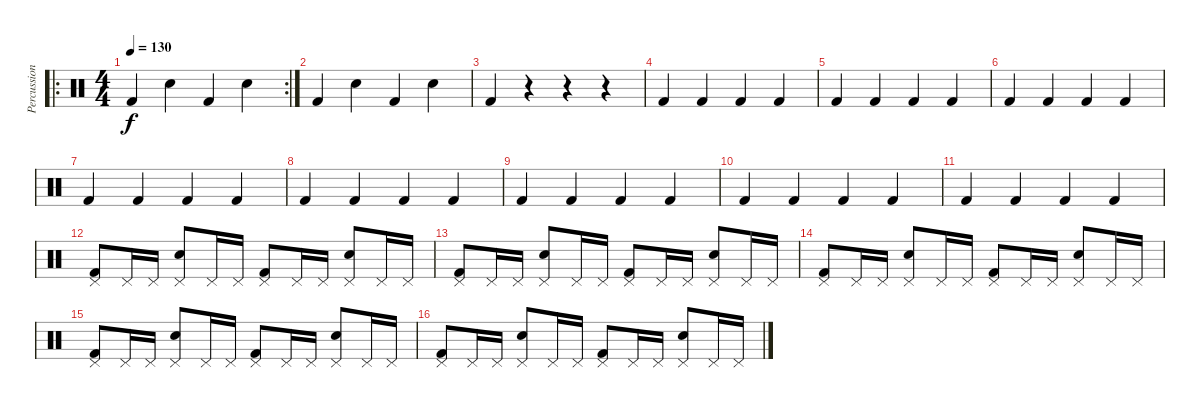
\track ("Percussion" "Percussion") {instrument percussion}
\staff {score}
\articulation defaults
\ro
\rc 2
\ts (4 4)
\tempo 130
\clef neutral
\ks c "Kick (hit) 2".4{dy f} "Snare (hit) 2".4 "Kick (hit) 2".4 "Snare (hit) 2".4
|
"Kick (hit) 2".4 "Snare (hit) 2".4 "Kick (hit) 2".4 "Snare (hit) 2".4 |
"Kick (hit) 2".4 r.4 r.4 r.4 |
"Kick (hit) 2".4 "Kick (hit) 2".4 "Kick (hit) 2".4 "Kick (hit) 2".4 |
"Kick (hit) 2".4 "Kick (hit) 2".4 "Kick (hit) 2".4 "Kick (hit) 2".4 |
"Kick (hit) 2".4 "Kick (hit) 2".4 "Kick (hit) 2".4 "Kick (hit) 2".4 |
"Kick (hit) 2".4 "Kick (hit) 2".4 "Kick (hit) 2".4 "Kick (hit) 2".4 |
"Kick (hit) 2".4 "Kick (hit) 2".4 "Kick (hit) 2".4 "Kick (hit) 2".4 |
"Kick (hit) 2".4 "Kick (hit) 2".4 "Kick (hit) 2".4 "Kick (hit) 2".4 |
"Kick (hit) 2".4 "Kick (hit) 2".4 "Kick (hit) 2".4 "Kick (hit) 2".4 |
"Kick (hit) 2".4 "Kick (hit) 2".4 "Kick (hit) 2".4 "Kick (hit) 2".4 |
("Pedal Hi-Hat (hit)" "Kick (hit) 2").8 "Pedal Hi-Hat (hit)".16 "Pedal Hi-Hat (hit)".16 ("Pedal Hi-Hat (hit)" "Snare (hit) 2").8 "Pedal Hi-Hat (hit)".16 "Pedal Hi-Hat (hit)".16 ("Pedal Hi-Hat (hit)" "Kick (hit) 2").8 "Pedal Hi-Hat (hit)".16 "Pedal Hi-Hat (hit)".16 ("Pedal Hi-Hat (hit)" "Snare (hit) 2").8 "Pedal Hi-Hat (hit)".16 "Pedal Hi-Hat (hit)".16 |
("Pedal Hi-Hat (hit)" "Kick (hit) 2").8 "Pedal Hi-Hat (hit)".16 "Pedal Hi-Hat (hit)".16 ("Pedal Hi-Hat (hit)" "Snare (hit) 2").8 "Pedal Hi-Hat (hit)".16 "Pedal Hi-Hat (hit)".16 ("Pedal Hi-Hat (hit)" "Kick (hit) 2").8 "Pedal Hi-Hat (hit)".16 "Pedal Hi-Hat (hit)".16 ("Pedal Hi-Hat (hit)" "Snare (hit) 2").8 "Pedal Hi-Hat (hit)".16 "Pedal Hi-Hat (hit)".16 |
("Pedal Hi-Hat (hit)" "Kick (hit) 2").8 "Pedal Hi-Hat (hit)".16 "Pedal Hi-Hat (hit)".16 ("Pedal Hi-Hat (hit)" "Snare (hit) 2").8 "Pedal Hi-Hat (hit)".16 "Pedal Hi-Hat (hit)".16 ("Pedal Hi-Hat (hit)" "Kick (hit) 2").8 "Pedal Hi-Hat (hit)".16 "Pedal Hi-Hat (hit)".16 ("Pedal Hi-Hat (hit)" "Snare (hit) 2").8 "Pedal Hi-Hat (hit)".16 "Pedal Hi-Hat (hit)".16 |
("Pedal Hi-Hat (hit)" "Kick (hit) 2").8 "Pedal Hi-Hat (hit)".16 "Pedal Hi-Hat (hit)".16 ("Pedal Hi-Hat (hit)" "Snare (hit) 2").8 "Pedal Hi-Hat (hit)".16 "Pedal Hi-Hat (hit)".16 ("Pedal Hi-Hat (hit)" "Kick (hit) 2").8 "Pedal Hi-Hat (hit)".16 "Pedal Hi-Hat (hit)".16 ("Pedal Hi-Hat (hit)" "Snare (hit) 2").8 "Pedal Hi-Hat (hit)".16 "Pedal Hi-Hat (hit)".16 |
("Pedal Hi-Hat (hit)" "Kick (hit) 2").8 "Pedal Hi-Hat (hit)".16 "Pedal Hi-Hat (hit)".16 ("Pedal Hi-Hat (hit)" "Snare (hit) 2").8 "Pedal Hi-Hat (hit)".16 "Pedal Hi-Hat (hit)".16 ("Pedal Hi-Hat (hit)" "Kick (hit) 2").8 "Pedal Hi-Hat (hit)".16 "Pedal Hi-Hat (hit)".16 ("Pedal Hi-Hat (hit)" "Snare (hit) 2").8 "Pedal Hi-Hat (hit)".16 "Pedal Hi-Hat (hit)".16
